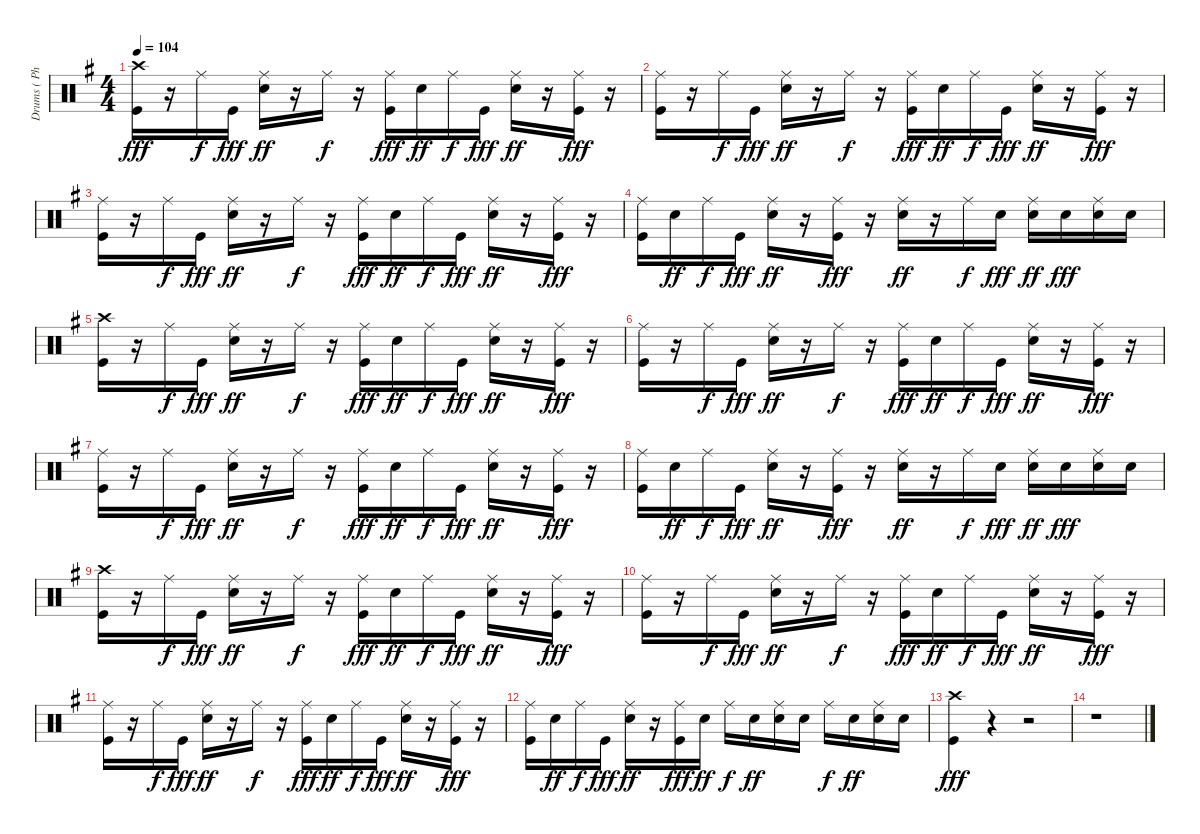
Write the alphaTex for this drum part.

\track ("Drums ( Phillip Selway )" "Drums ( Ph") {instrument percussion}
\staff {score}
\articulation defaults
\ts (4 4)
\tempo 104
\clef neutral
\ks eminor
("Crash high (hit)" "Kick (hit)").16{dy fff} r.16 "Ride (middle)".16{dy f} "Kick (hit)".16{dy fff} ("Ride (middle)" "Electric Snare (hit)").16{dy ff} r.16 "Ride (middle)".16{dy f} r.16 ("Ride (middle)" "Kick (hit)").16{dy fff} "Electric Snare (hit)".16{dy ff} "Ride (middle)".16{dy f} "Kick (hit)".16{dy fff} ("Ride (middle)" "Electric Snare (hit)").16{dy ff} r.16 ("Ride (middle)" "Kick (hit)").16{dy fff} r.16 |
("Ride (middle)" "Kick (hit)").16 r.16 "Ride (middle)".16{dy f} "Kick (hit)".16{dy fff} ("Ride (middle)" "Electric Snare (hit)").16{dy ff} r.16 "Ride (middle)".16{dy f} r.16 ("Ride (middle)" "Kick (hit)").16{dy fff} "Electric Snare (hit)".16{dy ff} "Ride (middle)".16{dy f} "Kick (hit)".16{dy fff} ("Ride (middle)" "Electric Snare (hit)").16{dy ff} r.16 ("Ride (middle)" "Kick (hit)").16{dy fff} r.16 |
("Ride (middle)" "Kick (hit)").16 r.16 "Ride (middle)".16{dy f} "Kick (hit)".16{dy fff} ("Ride (middle)" "Electric Snare (hit)").16{dy ff} r.16 "Ride (middle)".16{dy f} r.16 ("Ride (middle)" "Kick (hit)").16{dy fff} "Electric Snare (hit)".16{dy ff} "Ride (middle)".16{dy f} "Kick (hit)".16{dy fff} ("Ride (middle)" "Electric Snare (hit)").16{dy ff} r.16 ("Ride (middle)" "Kick (hit)").16{dy fff} r.16 |
("Ride (middle)" "Kick (hit)").16 "Electric Snare (hit)".16{dy ff} "Ride (middle)".16{dy f} "Kick (hit)".16{dy fff} ("Ride (middle)" "Electric Snare (hit)").16{dy ff} r.16 ("Ride (middle)" "Kick (hit)").16{dy fff} r.16 ("Ride (middle)" "Electric Snare (hit)").16{dy ff} r.16 "Ride (middle)".16{dy f} "Electric Snare (hit)".16{dy fff} ("Ride (middle)" "Electric Snare (hit)").16{dy ff} "Electric Snare (hit)".16{dy fff} ("Ride (middle)" "Electric Snare (hit)").16 "Electric Snare (hit)".16 |
("Crash high (hit)" "Kick (hit)").16 r.16 "Ride (middle)".16{dy f} "Kick (hit)".16{dy fff} ("Ride (middle)" "Electric Snare (hit)").16{dy ff} r.16 "Ride (middle)".16{dy f} r.16 ("Ride (middle)" "Kick (hit)").16{dy fff} "Electric Snare (hit)".16{dy ff} "Ride (middle)".16{dy f} "Kick (hit)".16{dy fff} ("Ride (middle)" "Electric Snare (hit)").16{dy ff} r.16 ("Ride (middle)" "Kick (hit)").16{dy fff} r.16 |
("Ride (middle)" "Kick (hit)").16 r.16 "Ride (middle)".16{dy f} "Kick (hit)".16{dy fff} ("Ride (middle)" "Electric Snare (hit)").16{dy ff} r.16 "Ride (middle)".16{dy f} r.16 ("Ride (middle)" "Kick (hit)").16{dy fff} "Electric Snare (hit)".16{dy ff} "Ride (middle)".16{dy f} "Kick (hit)".16{dy fff} ("Ride (middle)" "Electric Snare (hit)").16{dy ff} r.16 ("Ride (middle)" "Kick (hit)").16{dy fff} r.16 |
("Ride (middle)" "Kick (hit)").16 r.16 "Ride (middle)".16{dy f} "Kick (hit)".16{dy fff} ("Ride (middle)" "Electric Snare (hit)").16{dy ff} r.16 "Ride (middle)".16{dy f} r.16 ("Ride (middle)" "Kick (hit)").16{dy fff} "Electric Snare (hit)".16{dy ff} "Ride (middle)".16{dy f} "Kick (hit)".16{dy fff} ("Ride (middle)" "Electric Snare (hit)").16{dy ff} r.16 ("Ride (middle)" "Kick (hit)").16{dy fff} r.16 |
("Ride (middle)" "Kick (hit)").16 "Electric Snare (hit)".16{dy ff} "Ride (middle)".16{dy f} "Kick (hit)".16{dy fff} ("Ride (middle)" "Electric Snare (hit)").16{dy ff} r.16 ("Ride (middle)" "Kick (hit)").16{dy fff} r.16 ("Ride (middle)" "Electric Snare (hit)").16{dy ff} r.16 "Ride (middle)".16{dy f} "Electric Snare (hit)".16{dy fff} ("Ride (middle)" "Electric Snare (hit)").16{dy ff} "Electric Snare (hit)".16{dy fff} ("Ride (middle)" "Electric Snare (hit)").16 "Electric Snare (hit)".16 |
("Crash high (hit)" "Kick (hit)").16 r.16 "Ride (middle)".16{dy f} "Kick (hit)".16{dy fff} ("Ride (middle)" "Electric Snare (hit)").16{dy ff} r.16 "Ride (middle)".16{dy f} r.16 ("Ride (middle)" "Kick (hit)").16{dy fff} "Electric Snare (hit)".16{dy ff} "Ride (middle)".16{dy f} "Kick (hit)".16{dy fff} ("Ride (middle)" "Electric Snare (hit)").16{dy ff} r.16 ("Ride (middle)" "Kick (hit)").16{dy fff} r.16 |
("Ride (middle)" "Kick (hit)").16 r.16 "Ride (middle)".16{dy f} "Kick (hit)".16{dy fff} ("Ride (middle)" "Electric Snare (hit)").16{dy ff} r.16 "Ride (middle)".16{dy f} r.16 ("Ride (middle)" "Kick (hit)").16{dy fff} "Electric Snare (hit)".16{dy ff} "Ride (middle)".16{dy f} "Kick (hit)".16{dy fff} ("Ride (middle)" "Electric Snare (hit)").16{dy ff} r.16 ("Ride (middle)" "Kick (hit)").16{dy fff} r.16 |
("Ride (middle)" "Kick (hit)").16 r.16 "Ride (middle)".16{dy f} "Kick (hit)".16{dy fff} ("Ride (middle)" "Electric Snare (hit)").16{dy ff} r.16 "Ride (middle)".16{dy f} r.16 ("Ride (middle)" "Kick (hit)").16{dy fff} "Electric Snare (hit)".16{dy ff} "Ride (middle)".16{dy f} "Kick (hit)".16{dy fff} ("Ride (middle)" "Electric Snare (hit)").16{dy ff} r.16 ("Ride (middle)" "Kick (hit)").16{dy fff} r.16 |
("Ride (middle)" "Kick (hit)").16 "Electric Snare (hit)".16{dy ff} "Ride (middle)".16{dy f} "Kick (hit)".16{dy fff} ("Ride (middle)" "Electric Snare (hit)").16{dy ff} r.16 ("Ride (middle)" "Kick (hit)").16{dy fff} "Electric Snare (hit)".16{dy ff} "Ride (middle)".16{dy f} "Electric Snare (hit)".16{dy ff} ("Ride (middle)" "Electric Snare (hit)").16 "Electric Snare (hit)".16 "Ride (middle)".16{dy f} "Electric Snare (hit)".16{dy ff} ("Ride (middle)" "Electric Snare (hit)").16 "Electric Snare (hit)".16 |
("Crash high (hit)" "Kick (hit)").4{dy fff} r.4 r.2 |
r.1
